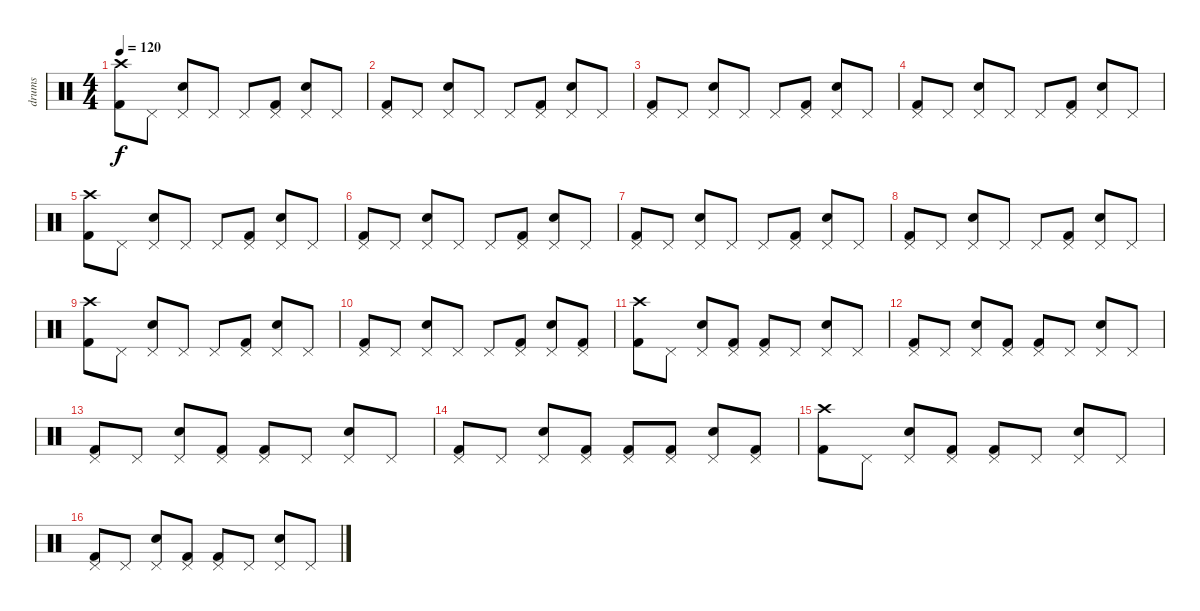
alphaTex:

\track ("drums" "drums") {instrument percussion}
\staff {score}
\articulation defaults
\ts (4 4)
\tempo 120
\clef neutral
\ks c
("Crash high (hit)" "Kick (hit) 2").8{dy f} "Pedal Hi-Hat (hit)".8 ("Pedal Hi-Hat (hit)" "Electric Snare (hit)").8 "Pedal Hi-Hat (hit)".8 "Pedal Hi-Hat (hit)".8 ("Pedal Hi-Hat (hit)" "Kick (hit) 2").8 ("Pedal Hi-Hat (hit)" "Electric Snare (hit)").8 "Pedal Hi-Hat (hit)".8 |
("Pedal Hi-Hat (hit)" "Kick (hit) 2").8 "Pedal Hi-Hat (hit)".8 ("Pedal Hi-Hat (hit)" "Electric Snare (hit)").8 "Pedal Hi-Hat (hit)".8 "Pedal Hi-Hat (hit)".8 ("Pedal Hi-Hat (hit)" "Kick (hit) 2").8 ("Pedal Hi-Hat (hit)" "Electric Snare (hit)").8 "Pedal Hi-Hat (hit)".8 |
("Pedal Hi-Hat (hit)" "Kick (hit) 2").8 "Pedal Hi-Hat (hit)".8 ("Pedal Hi-Hat (hit)" "Electric Snare (hit)").8 "Pedal Hi-Hat (hit)".8 "Pedal Hi-Hat (hit)".8 ("Pedal Hi-Hat (hit)" "Kick (hit) 2").8 ("Pedal Hi-Hat (hit)" "Electric Snare (hit)").8 "Pedal Hi-Hat (hit)".8 |
("Pedal Hi-Hat (hit)" "Kick (hit) 2").8 "Pedal Hi-Hat (hit)".8 ("Pedal Hi-Hat (hit)" "Electric Snare (hit)").8 "Pedal Hi-Hat (hit)".8 "Pedal Hi-Hat (hit)".8 ("Pedal Hi-Hat (hit)" "Kick (hit) 2").8 ("Pedal Hi-Hat (hit)" "Electric Snare (hit)").8 "Pedal Hi-Hat (hit)".8 |
("Crash high (hit)" "Kick (hit) 2").8 "Pedal Hi-Hat (hit)".8 ("Pedal Hi-Hat (hit)" "Electric Snare (hit)").8 "Pedal Hi-Hat (hit)".8 "Pedal Hi-Hat (hit)".8 ("Pedal Hi-Hat (hit)" "Kick (hit) 2").8 ("Pedal Hi-Hat (hit)" "Electric Snare (hit)").8 "Pedal Hi-Hat (hit)".8 |
("Pedal Hi-Hat (hit)" "Kick (hit) 2").8 "Pedal Hi-Hat (hit)".8 ("Pedal Hi-Hat (hit)" "Electric Snare (hit)").8 "Pedal Hi-Hat (hit)".8 "Pedal Hi-Hat (hit)".8 ("Pedal Hi-Hat (hit)" "Kick (hit) 2").8 ("Pedal Hi-Hat (hit)" "Electric Snare (hit)").8 "Pedal Hi-Hat (hit)".8 |
("Pedal Hi-Hat (hit)" "Kick (hit) 2").8 "Pedal Hi-Hat (hit)".8 ("Pedal Hi-Hat (hit)" "Electric Snare (hit)").8 "Pedal Hi-Hat (hit)".8 "Pedal Hi-Hat (hit)".8 ("Pedal Hi-Hat (hit)" "Kick (hit) 2").8 ("Pedal Hi-Hat (hit)" "Electric Snare (hit)").8 "Pedal Hi-Hat (hit)".8 |
("Pedal Hi-Hat (hit)" "Kick (hit) 2").8 "Pedal Hi-Hat (hit)".8 ("Pedal Hi-Hat (hit)" "Electric Snare (hit)").8 "Pedal Hi-Hat (hit)".8 "Pedal Hi-Hat (hit)".8 ("Pedal Hi-Hat (hit)" "Kick (hit) 2").8 ("Pedal Hi-Hat (hit)" "Electric Snare (hit)").8 "Pedal Hi-Hat (hit)".8 |
("Crash high (hit)" "Kick (hit) 2").8 "Pedal Hi-Hat (hit)".8 ("Pedal Hi-Hat (hit)" "Electric Snare (hit)").8 "Pedal Hi-Hat (hit)".8 "Pedal Hi-Hat (hit)".8 ("Pedal Hi-Hat (hit)" "Kick (hit) 2").8 ("Pedal Hi-Hat (hit)" "Electric Snare (hit)").8 "Pedal Hi-Hat (hit)".8 |
("Pedal Hi-Hat (hit)" "Kick (hit) 2").8 "Pedal Hi-Hat (hit)".8 ("Pedal Hi-Hat (hit)" "Electric Snare (hit)").8 "Pedal Hi-Hat (hit)".8 "Pedal Hi-Hat (hit)".8 ("Pedal Hi-Hat (hit)" "Kick (hit) 2").8 ("Pedal Hi-Hat (hit)" "Electric Snare (hit)").8 ("Pedal Hi-Hat (hit)" "Kick (hit) 2").8 |
("Crash high (hit)" "Kick (hit) 2").8 "Pedal Hi-Hat (hit)".8 ("Pedal Hi-Hat (hit)" "Electric Snare (hit)").8 ("Pedal Hi-Hat (hit)" "Kick (hit) 2").8 ("Pedal Hi-Hat (hit)" "Kick (hit) 2").8 "Pedal Hi-Hat (hit)".8 ("Pedal Hi-Hat (hit)" "Electric Snare (hit)").8 "Pedal Hi-Hat (hit)".8 |
("Pedal Hi-Hat (hit)" "Kick (hit) 2").8 "Pedal Hi-Hat (hit)".8 ("Pedal Hi-Hat (hit)" "Electric Snare (hit)").8 ("Pedal Hi-Hat (hit)" "Kick (hit) 2").8 ("Pedal Hi-Hat (hit)" "Kick (hit) 2").8 "Pedal Hi-Hat (hit)".8 ("Pedal Hi-Hat (hit)" "Electric Snare (hit)").8 "Pedal Hi-Hat (hit)".8 |
("Pedal Hi-Hat (hit)" "Kick (hit) 2").8 "Pedal Hi-Hat (hit)".8 ("Pedal Hi-Hat (hit)" "Electric Snare (hit)").8 ("Pedal Hi-Hat (hit)" "Kick (hit) 2").8 ("Pedal Hi-Hat (hit)" "Kick (hit) 2").8 "Pedal Hi-Hat (hit)".8 ("Pedal Hi-Hat (hit)" "Electric Snare (hit)").8 "Pedal Hi-Hat (hit)".8 |
("Pedal Hi-Hat (hit)" "Kick (hit) 2").8 "Pedal Hi-Hat (hit)".8 ("Pedal Hi-Hat (hit)" "Electric Snare (hit)").8 ("Pedal Hi-Hat (hit)" "Kick (hit) 2").8 ("Pedal Hi-Hat (hit)" "Kick (hit) 2").8 ("Pedal Hi-Hat (hit)" "Kick (hit) 2").8 ("Pedal Hi-Hat (hit)" "Electric Snare (hit)").8 ("Pedal Hi-Hat (hit)" "Kick (hit) 2").8 |
("Crash high (hit)" "Kick (hit) 2").8 "Pedal Hi-Hat (hit)".8 ("Pedal Hi-Hat (hit)" "Electric Snare (hit)").8 ("Pedal Hi-Hat (hit)" "Kick (hit) 2").8 ("Pedal Hi-Hat (hit)" "Kick (hit) 2").8 "Pedal Hi-Hat (hit)".8 ("Pedal Hi-Hat (hit)" "Electric Snare (hit)").8 "Pedal Hi-Hat (hit)".8 |
("Pedal Hi-Hat (hit)" "Kick (hit) 2").8 "Pedal Hi-Hat (hit)".8 ("Pedal Hi-Hat (hit)" "Electric Snare (hit)").8 ("Pedal Hi-Hat (hit)" "Kick (hit) 2").8 ("Pedal Hi-Hat (hit)" "Kick (hit) 2").8 "Pedal Hi-Hat (hit)".8 ("Pedal Hi-Hat (hit)" "Electric Snare (hit)").8 "Pedal Hi-Hat (hit)".8
